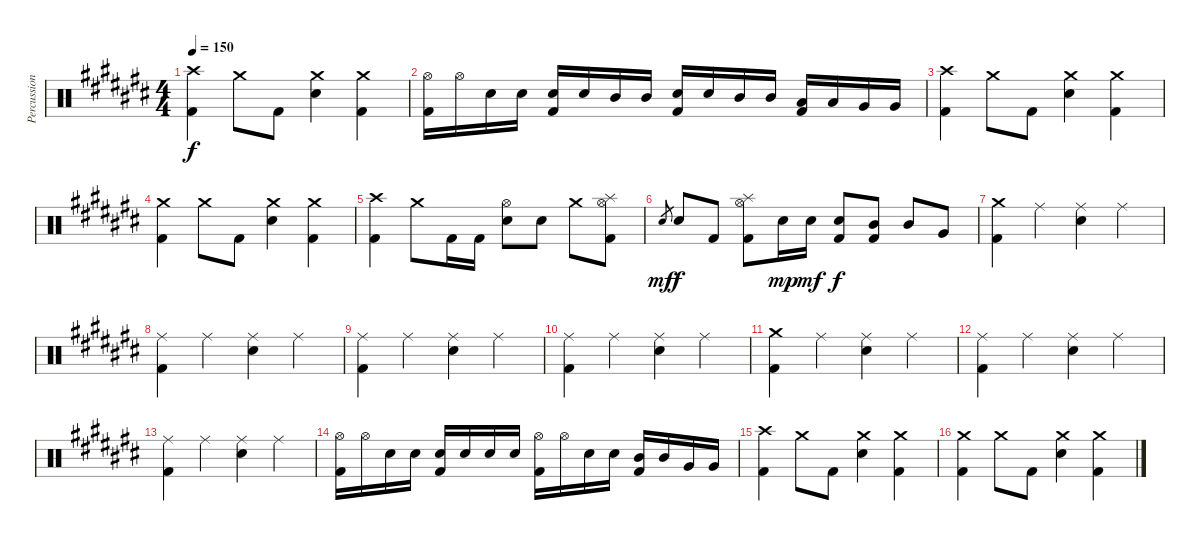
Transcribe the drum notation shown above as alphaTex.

\track ("Percussion" "Percussion") {instrument percussion}
\staff {score}
\articulation defaults
\ts (4 4)
\tempo 150
\clef neutral
\ks c#
("Crash high (hit)" "Kick (hit) 2").4{dy f} "Crash medium (hit)".8 "Kick (hit) 2".8 ("Crash medium (hit)" "Electric Snare (hit)").4 ("Crash medium (hit)" "Kick (hit) 2").4 |
("Hi-Hat (open)" "Kick (hit) 2").16 "Hi-Hat (open)".16 "Electric Snare (hit)".16 "Electric Snare (hit)".16 ("Electric Snare (hit)" "Kick (hit) 2").16 "Electric Snare (hit)".16 "Mid Tom (hit)".16 "Mid Tom (hit)".16 ("Electric Snare (hit)" "Kick (hit) 2").16 "Electric Snare (hit)".16 "Mid Tom (hit)".16 "Mid Tom (hit)".16 ("Low Tom (hit)" "Kick (hit) 2").16 "Low Tom (hit)".16 "Very Low Tom (hit)".16 "Very Low Tom (hit)".16 |
("Crash high (hit)" "Kick (hit) 2").4 "Crash medium (hit)".8 "Kick (hit) 2".8 ("Crash medium (hit)" "Electric Snare (hit)").4 ("Crash medium (hit)" "Kick (hit) 2").4 |
("Crash medium (hit)" "Kick (hit) 2").4 "Crash medium (hit)".8 "Kick (hit) 2".8 ("Crash medium (hit)" "Electric Snare (hit)").4 ("Crash medium (hit)" "Kick (hit) 2").4 |
("Crash high (hit)" "Kick (hit) 2").4 "Crash medium (hit)".8 "Kick (hit) 2".16 "Kick (hit) 2".16 ("Hi-Hat (open)" "Electric Snare (hit)").8 "Electric Snare (hit)".8 "Crash medium (hit)".8 ("Hi-Hat (open)" "Splash (hit)" "Kick (hit) 2").8 |
"Electric Snare (hit)".8{gr dy mf} "Electric Snare (hit)".8{dy f} "Kick (hit) 2".8 ("Hi-Hat (open)" "Splash (hit)" "Kick (hit) 2").8 "Electric Snare (hit)".16{dy mp} "Electric Snare (hit)".16{dy mf} ("Electric Snare (hit)" "Kick (hit) 2").8{dy f} ("Mid Tom (hit)" "Kick (hit) 2").8 "Mid Tom (hit)".8 "Very Low Tom (hit)".8 |
("Crash medium (hit)" "Kick (hit) 2").4 "Ride (middle)".4 ("Ride (middle)" "Electric Snare (hit)").4 "Ride (middle)".4 |
("Ride (middle)" "Kick (hit) 2").4 "Ride (middle)".4 ("Ride (middle)" "Electric Snare (hit)").4 "Ride (middle)".4 |
("Ride (middle)" "Kick (hit) 2").4 "Ride (middle)".4 ("Ride (middle)" "Electric Snare (hit)").4 "Ride (middle)".4 |
("Ride (middle)" "Kick (hit) 2").4 "Ride (middle)".4 ("Ride (middle)" "Electric Snare (hit)").4 "Ride (middle)".4 |
("Crash medium (hit)" "Kick (hit) 2").4 "Ride (middle)".4 ("Ride (middle)" "Electric Snare (hit)").4 "Ride (middle)".4 |
("Ride (middle)" "Kick (hit) 2").4 "Ride (middle)".4 ("Ride (middle)" "Electric Snare (hit)").4 "Ride (middle)".4 |
("Ride (middle)" "Kick (hit) 2").4 "Ride (middle)".4 ("Ride (middle)" "Electric Snare (hit)").4 "Ride (middle)".4 |
("Hi-Hat (open)" "Kick (hit) 2").16 "Hi-Hat (open)".16 "Electric Snare (hit)".16 "Electric Snare (hit)".16 ("Electric Snare (hit)" "Kick (hit) 2").16 "Electric Snare (hit)".16 "Electric Snare (hit)".16 "Electric Snare (hit)".16 ("Hi-Hat (open)" "Kick (hit) 2").16 "Hi-Hat (open)".16 "Electric Snare (hit)".16 "Electric Snare (hit)".16 ("Mid Tom (hit)" "Kick (hit) 2").16 "Mid Tom (hit)".16 "Very Low Tom (hit)".16 "Very Low Tom (hit)".16 |
("Crash high (hit)" "Kick (hit) 2").4 "Crash medium (hit)".8 "Kick (hit) 2".8 ("Crash medium (hit)" "Electric Snare (hit)").4 ("Crash medium (hit)" "Kick (hit) 2").4 |
("Crash medium (hit)" "Kick (hit) 2").4 "Crash medium (hit)".8 "Kick (hit) 2".8 ("Crash medium (hit)" "Electric Snare (hit)").4 ("Crash medium (hit)" "Kick (hit) 2").4
